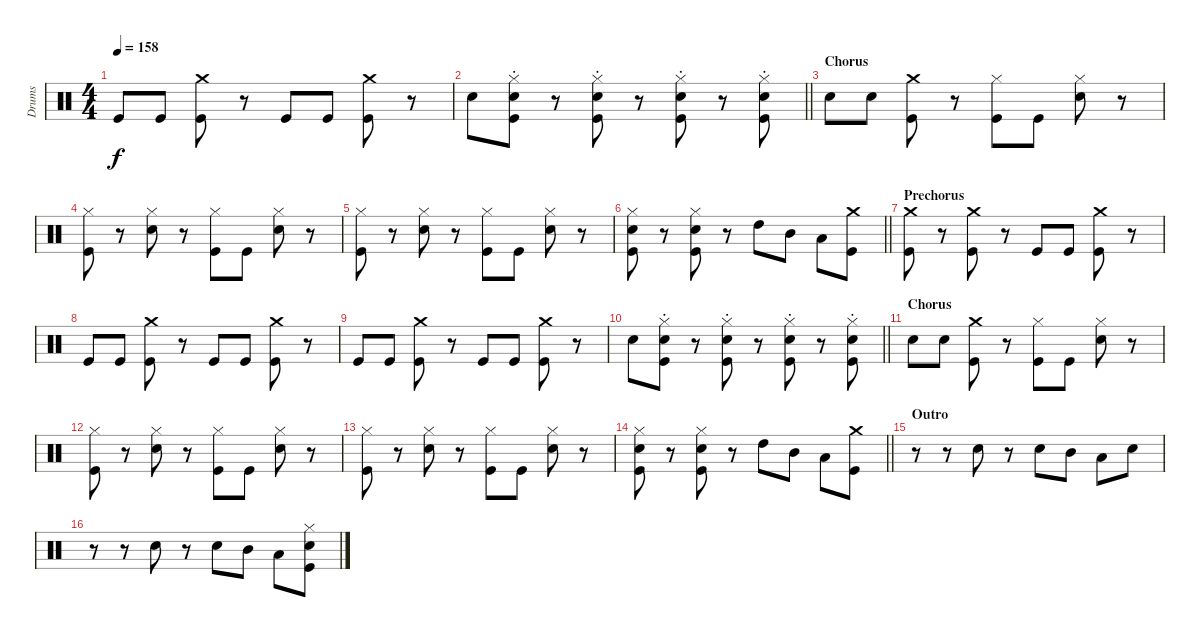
\track ("Drums" "Drums") {instrument percussion}
\staff {score}
\articulation defaults
\ts (4 4)
\tempo 158
\clef neutral
\ks c "Kick (hit)".8{dy f} "Kick (hit)".8
("Crash medium (hit)" "Kick (hit)").8 r.8 "Kick (hit)".8 "Kick (hit)".8 ("Crash medium (hit)" "Kick (hit)").8 r.8 |
\barLineRight lightlight "Snare (hit) 2".8
("Hi-Hat (closed)"{st} "Snare (hit) 2"{st} "Kick (hit)"{st}).8 r.8 ("Hi-Hat (closed)"{st} "Snare (hit) 2"{st} "Kick (hit)"{st}).8 r.8 ("Hi-Hat (closed)"{st} "Snare (hit) 2"{st} "Kick (hit)"{st}).8 r.8 ("Hi-Hat (closed)"{st} "Snare (hit) 2"{st} "Kick (hit)"{st}).8 |
\section ("" "Chorus")
"Snare (hit) 2".8 "Snare (hit) 2".8 ("Crash medium (hit)" "Kick (hit)").8 r.8 ("Hi-Hat (closed)" "Kick (hit)").8 "Kick (hit)".8 ("Hi-Hat (closed)" "Snare (hit) 2").8 r.8 |
("Hi-Hat (closed)" "Kick (hit)").8 r.8 ("Hi-Hat (closed)" "Snare (hit) 2").8 r.8 ("Hi-Hat (closed)" "Kick (hit)").8 "Kick (hit)".8 ("Hi-Hat (closed)" "Snare (hit) 2").8 r.8 |
("Hi-Hat (closed)" "Kick (hit)").8 r.8 ("Hi-Hat (closed)" "Snare (hit) 2").8 r.8 ("Hi-Hat (closed)" "Kick (hit)").8 "Kick (hit)".8 ("Hi-Hat (closed)" "Snare (hit) 2").8 r.8 |
\barLineRight lightlight
("Hi-Hat (closed)" "Snare (hit) 2" "Kick (hit)").8 r.8 ("Hi-Hat (closed)" "Snare (hit) 2" "Kick (hit)").8 r.8 "High Tom (hit)".8 "Mid Tom (hit)".8 "Low Tom (hit)".8 ("Crash medium (hit)" "Kick (hit)").8 |
\section ("" "Prechorus")
("Crash medium (hit)" "Kick (hit)").8 r.8 ("Crash medium (hit)" "Kick (hit)").8 r.8 "Kick (hit)".8 "Kick (hit)".8 ("Crash medium (hit)" "Kick (hit)").8 r.8 |
"Kick (hit)".8 "Kick (hit)".8 ("Crash medium (hit)" "Kick (hit)").8 r.8 "Kick (hit)".8 "Kick (hit)".8 ("Crash medium (hit)" "Kick (hit)").8 r.8 |
"Kick (hit)".8 "Kick (hit)".8 ("Crash medium (hit)" "Kick (hit)").8 r.8 "Kick (hit)".8 "Kick (hit)".8 ("Crash medium (hit)" "Kick (hit)").8 r.8 |
\barLineRight lightlight "Snare (hit) 2".8
("Hi-Hat (closed)"{st} "Snare (hit) 2"{st} "Kick (hit)"{st}).8 r.8 ("Hi-Hat (closed)"{st} "Snare (hit) 2"{st} "Kick (hit)"{st}).8 r.8 ("Hi-Hat (closed)"{st} "Snare (hit) 2"{st} "Kick (hit)"{st}).8 r.8 ("Hi-Hat (closed)"{st} "Snare (hit) 2"{st} "Kick (hit)"{st}).8 |
\section ("" "Chorus")
"Snare (hit) 2".8 "Snare (hit) 2".8 ("Crash medium (hit)" "Kick (hit)").8 r.8 ("Hi-Hat (closed)" "Kick (hit)").8 "Kick (hit)".8 ("Hi-Hat (closed)" "Snare (hit) 2").8 r.8 |
("Hi-Hat (closed)" "Kick (hit)").8 r.8 ("Hi-Hat (closed)" "Snare (hit) 2").8 r.8 ("Hi-Hat (closed)" "Kick (hit)").8 "Kick (hit)".8 ("Hi-Hat (closed)" "Snare (hit) 2").8 r.8 |
("Hi-Hat (closed)" "Kick (hit)").8 r.8 ("Hi-Hat (closed)" "Snare (hit) 2").8 r.8 ("Hi-Hat (closed)" "Kick (hit)").8 "Kick (hit)".8 ("Hi-Hat (closed)" "Snare (hit) 2").8 r.8 |
\barLineRight lightlight
("Hi-Hat (closed)" "Snare (hit) 2" "Kick (hit)").8 r.8 ("Hi-Hat (closed)" "Snare (hit) 2" "Kick (hit)").8 r.8 "High Tom (hit)".8 "Mid Tom (hit)".8 "Low Tom (hit)".8 ("Crash medium (hit)" "Kick (hit)").8 |
\section ("" "Outro")
r.8 r.8 "Snare (hit) 2".8 r.8 "Snare (hit) 2".8 "Mid Tom (hit)".8 "Low Tom (hit)".8 "Snare (hit) 2".8 |
r.8 r.8 "Snare (hit) 2".8 r.8 "Snare (hit) 2".8 "Mid Tom (hit)".8 "Low Tom (hit)".8 ("Hi-Hat (closed)" "Snare (hit) 2" "Kick (hit)").8
